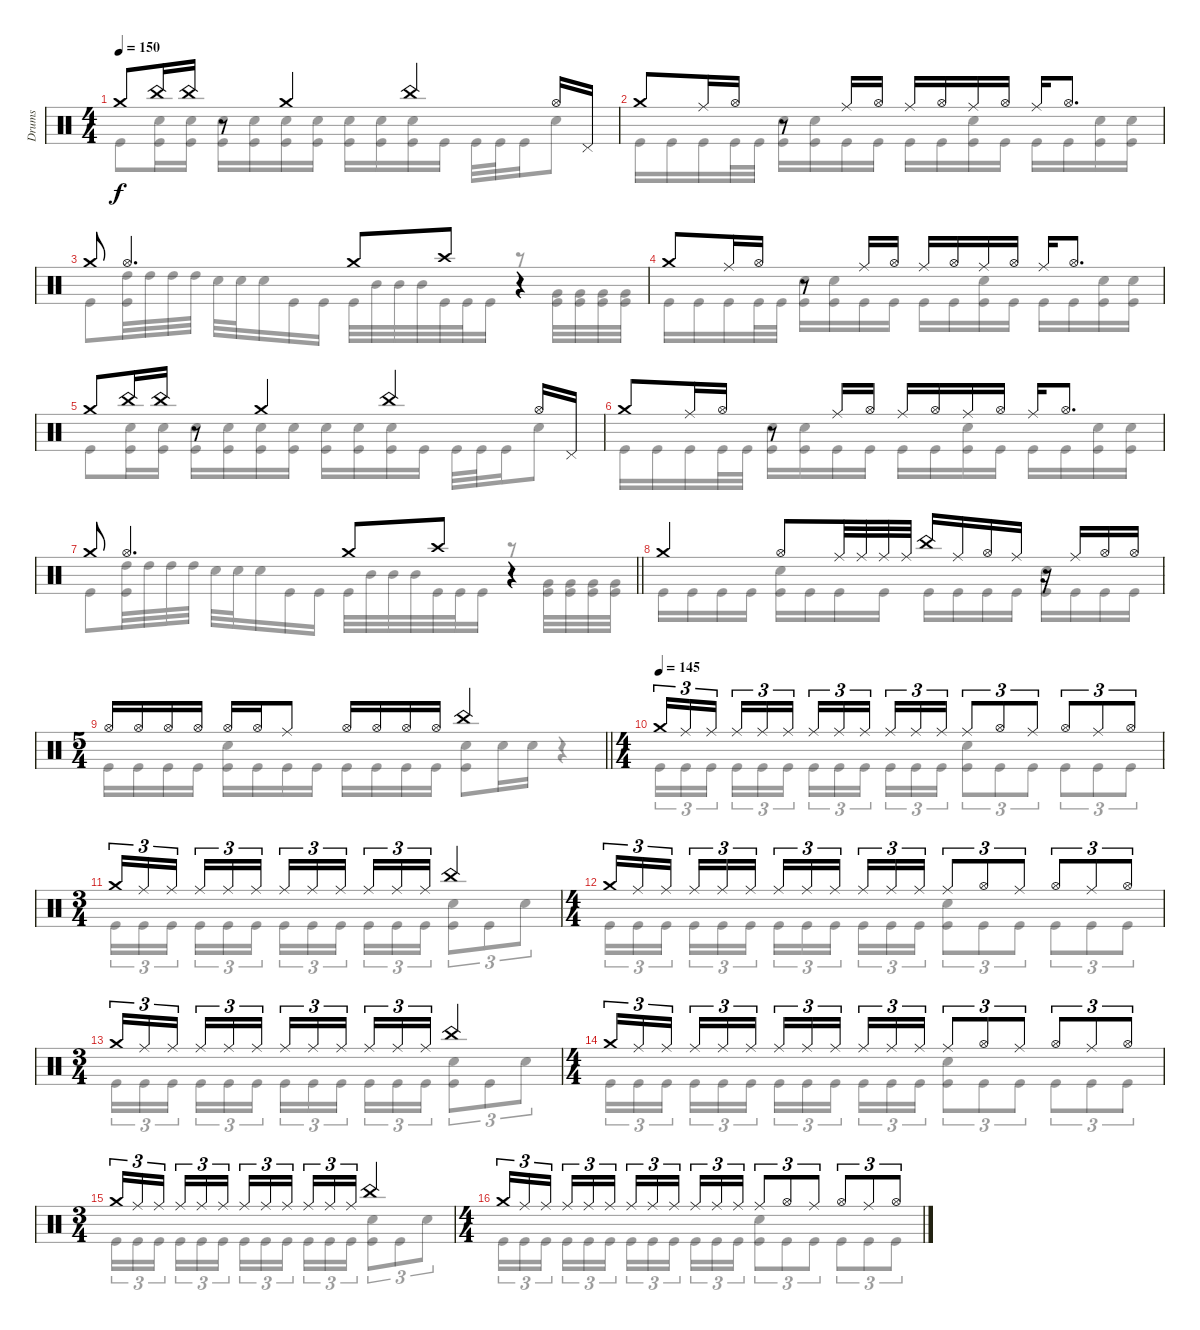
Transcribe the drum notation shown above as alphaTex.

\track ("Drums" "Drums") {instrument percussion}
\staff {score}
\articulation defaults
\voice
\ts (4 4)
\tempo 150
\clef neutral
\ks c "Crash medium (hit)".8{dy f} "China (hit)".16 "China (hit)".16
r.8 "Crash medium (hit)".4 "China (hit)".4 "Hi-Hat (open)".16 "Pedal Hi-Hat (hit)".16 |
"Crash medium (hit)".8 "Ride (middle)".16 "Hi-Hat (open)".16 r.8 "Ride (middle)".16 "Hi-Hat (open)".16 "Ride (middle)".16 "Hi-Hat (open)".16 "Ride (middle)".16 "Hi-Hat (open)".16 "Ride (middle)".16 "Hi-Hat (open)".8{d} |
"Crash medium (hit)".8 "Hi-Hat (open)".4{d} "Crash medium (hit)".8 "Crash high (hit)".8 r.4 |
"Crash medium (hit)".8 "Ride (middle)".16 "Hi-Hat (open)".16 r.8 "Ride (middle)".16 "Hi-Hat (open)".16 "Ride (middle)".16 "Hi-Hat (open)".16 "Ride (middle)".16 "Hi-Hat (open)".16 "Ride (middle)".16 "Hi-Hat (open)".8{d} |
"Crash medium (hit)".8 "China (hit)".16 "China (hit)".16 r.8 "Crash medium (hit)".4 "China (hit)".4 "Hi-Hat (open)".16 "Pedal Hi-Hat (hit)".16 |
"Crash medium (hit)".8 "Ride (middle)".16 "Hi-Hat (open)".16 r.8 "Ride (middle)".16 "Hi-Hat (open)".16 "Ride (middle)".16 "Hi-Hat (open)".16 "Ride (middle)".16 "Hi-Hat (open)".16 "Ride (middle)".16 "Hi-Hat (open)".8{d} |
\barLineRight lightlight "Crash medium (hit)".8 "Hi-Hat (open)".4{d} "Crash medium (hit)".8 "Crash high (hit)".8
r.4 |
\section ("" "")
"Crash medium (hit)".4 "Hi-Hat (open)".8 "Ride (middle)".32 "Ride (middle)".32 "Ride (middle)".32 "Ride (middle)".32 "China (hit)".16 "Ride (middle)".16 "Hi-Hat (open)".16 "Ride (middle)".16 r.16 "Ride (middle)".16 "Hi-Hat (open)".16 "Hi-Hat (open)".16 |
\ts (5 4)
\barLineRight lightlight "Hi-Hat (open)".16 "Hi-Hat (open)".16 "Hi-Hat (open)".16 "Hi-Hat (open)".16 "Hi-Hat (open)".16 "Hi-Hat (open)".16 "Ride (middle)".8 "Hi-Hat (open)".16 "Hi-Hat (open)".16 "Hi-Hat (open)".16 "Hi-Hat (open)".16 "China (hit)".2
|
\ts (4 4)
\tempo (145)
"Crash medium (hit)".16{tu (3 2)} "Ride (middle)".16{tu (3 2)} "Ride (middle)".16{tu (3 2) beam splitsecondary} "Ride (middle)".16{tu (3 2)} "Ride (middle)".16{tu (3 2)} "Ride (middle)".16{tu (3 2)} "Ride (middle)".16{tu (3 2)} "Ride (middle)".16{tu (3 2)} "Ride (middle)".16{tu (3 2) beam splitsecondary} "Ride (middle)".16{tu (3 2)} "Ride (middle)".16{tu (3 2)} "Ride (middle)".16{tu (3 2)} "Ride (middle)".8{tu (3 2)} "Hi-Hat (open)".8{tu (3 2)} "Ride (middle)".8{tu (3 2)} "Hi-Hat (open)".8{tu (3 2)} "Ride (middle)".8{tu (3 2)} "Hi-Hat (open)".8{tu (3 2)} |
\ts (3 4)
"Crash medium (hit)".16{tu (3 2)} "Ride (middle)".16{tu (3 2)} "Ride (middle)".16{tu (3 2) beam splitsecondary} "Ride (middle)".16{tu (3 2)} "Ride (middle)".16{tu (3 2)} "Ride (middle)".16{tu (3 2)} "Ride (middle)".16{tu (3 2)} "Ride (middle)".16{tu (3 2)} "Ride (middle)".16{tu (3 2) beam splitsecondary} "Ride (middle)".16{tu (3 2)} "Ride (middle)".16{tu (3 2)} "Ride (middle)".16{tu (3 2)} "China (hit)".4 |
\ts (4 4)
"Crash medium (hit)".16{tu (3 2)} "Ride (middle)".16{tu (3 2)} "Ride (middle)".16{tu (3 2) beam splitsecondary} "Ride (middle)".16{tu (3 2)} "Ride (middle)".16{tu (3 2)} "Ride (middle)".16{tu (3 2)} "Ride (middle)".16{tu (3 2)} "Ride (middle)".16{tu (3 2)} "Ride (middle)".16{tu (3 2) beam splitsecondary} "Ride (middle)".16{tu (3 2)} "Ride (middle)".16{tu (3 2)} "Ride (middle)".16{tu (3 2)} "Ride (middle)".8{tu (3 2)} "Hi-Hat (open)".8{tu (3 2)} "Ride (middle)".8{tu (3 2)} "Hi-Hat (open)".8{tu (3 2)} "Ride (middle)".8{tu (3 2)} "Hi-Hat (open)".8{tu (3 2)} |
\ts (3 4)
"Crash medium (hit)".16{tu (3 2)} "Ride (middle)".16{tu (3 2)} "Ride (middle)".16{tu (3 2) beam splitsecondary} "Ride (middle)".16{tu (3 2)} "Ride (middle)".16{tu (3 2)} "Ride (middle)".16{tu (3 2)} "Ride (middle)".16{tu (3 2)} "Ride (middle)".16{tu (3 2)} "Ride (middle)".16{tu (3 2) beam splitsecondary} "Ride (middle)".16{tu (3 2)} "Ride (middle)".16{tu (3 2)} "Ride (middle)".16{tu (3 2)} "China (hit)".4 |
\ts (4 4)
"Crash medium (hit)".16{tu (3 2)} "Ride (middle)".16{tu (3 2)} "Ride (middle)".16{tu (3 2) beam splitsecondary} "Ride (middle)".16{tu (3 2)} "Ride (middle)".16{tu (3 2)} "Ride (middle)".16{tu (3 2)} "Ride (middle)".16{tu (3 2)} "Ride (middle)".16{tu (3 2)} "Ride (middle)".16{tu (3 2) beam splitsecondary} "Ride (middle)".16{tu (3 2)} "Ride (middle)".16{tu (3 2)} "Ride (middle)".16{tu (3 2)} "Ride (middle)".8{tu (3 2)} "Hi-Hat (open)".8{tu (3 2)} "Ride (middle)".8{tu (3 2)} "Hi-Hat (open)".8{tu (3 2)} "Ride (middle)".8{tu (3 2)} "Hi-Hat (open)".8{tu (3 2)} |
\ts (3 4)
"Crash medium (hit)".16{tu (3 2)} "Ride (middle)".16{tu (3 2)} "Ride (middle)".16{tu (3 2) beam splitsecondary} "Ride (middle)".16{tu (3 2)} "Ride (middle)".16{tu (3 2)} "Ride (middle)".16{tu (3 2)} "Ride (middle)".16{tu (3 2)} "Ride (middle)".16{tu (3 2)} "Ride (middle)".16{tu (3 2) beam splitsecondary} "Ride (middle)".16{tu (3 2)} "Ride (middle)".16{tu (3 2)} "Ride (middle)".16{tu (3 2)} "China (hit)".4 |
\ts (4 4)
"Crash medium (hit)".16{tu (3 2)} "Ride (middle)".16{tu (3 2)} "Ride (middle)".16{tu (3 2) beam splitsecondary} "Ride (middle)".16{tu (3 2)} "Ride (middle)".16{tu (3 2)} "Ride (middle)".16{tu (3 2)} "Ride (middle)".16{tu (3 2)} "Ride (middle)".16{tu (3 2)} "Ride (middle)".16{tu (3 2) beam splitsecondary} "Ride (middle)".16{tu (3 2)} "Ride (middle)".16{tu (3 2)} "Ride (middle)".16{tu (3 2)} "Ride (middle)".8{tu (3 2)} "Hi-Hat (open)".8{tu (3 2)} "Ride (middle)".8{tu (3 2)} "Hi-Hat (open)".8{tu (3 2)} "Ride (middle)".8{tu (3 2)} "Hi-Hat (open)".8{tu (3 2)}
\voice
\clef neutral
\ottava regular
\simile none
\ks c "Kick (hit)".8{dy f}
("Snare (hit) 2" "Kick (hit)").16 ("Snare (hit) 2" "Kick (hit)").16 ("Snare (hit) 2" "Kick (hit)").16 ("Snare (hit) 2" "Kick (hit)").16 ("Snare (hit) 2" "Kick (hit)").16 ("Snare (hit) 2" "Kick (hit)").16 ("Snare (hit) 2" "Kick (hit)").16 ("Snare (hit) 2" "Kick (hit)").16 ("Snare (hit) 2" "Kick (hit)").16 "Kick (hit)".16 "Kick (hit)".32 "Kick (hit)".32 "Kick (hit)".16 "Snare (hit) 2".8 |
"Kick (hit)".16 "Kick (hit)".16 "Kick (hit)".16 "Kick (hit)".32 "Kick (hit)".32 ("Snare (hit) 2" "Kick (hit)").16 ("Snare (hit) 2" "Kick (hit)").16 "Kick (hit)".16 "Kick (hit)".16 "Kick (hit)".16 "Kick (hit)".16 ("Snare (hit) 2" "Kick (hit)").16 "Kick (hit)".16 "Kick (hit)".16 "Kick (hit)".16 ("Snare (hit) 2" "Kick (hit)").16 ("Snare (hit) 2" "Kick (hit)").16 |
"Kick (hit)".8 ("High Tom (hit)" "Kick (hit)").32 "High Tom (hit)".32 "High Tom (hit)".32 "High Tom (hit)".32 "Snare (hit) 2".32 "Snare (hit) 2".32 "Snare (hit) 2".16 "Kick (hit)".16 "Kick (hit)".16 "Kick (hit)".32 "Mid Tom (hit)".32 "Mid Tom (hit)".32 "Mid Tom (hit)".32 "Kick (hit)".32 "Kick (hit)".32 "Kick (hit)".16 r.8 ("Very Low Tom (hit)" "Kick (hit)").32 ("Very Low Tom (hit)" "Kick (hit)").32 ("Very Low Tom (hit)" "Kick (hit)").32 ("Very Low Tom (hit)" "Kick (hit)").32 |
"Kick (hit)".16 "Kick (hit)".16 "Kick (hit)".16 "Kick (hit)".32 "Kick (hit)".32 ("Snare (hit) 2" "Kick (hit)").16 ("Snare (hit) 2" "Kick (hit)").16 "Kick (hit)".16 "Kick (hit)".16 "Kick (hit)".16 "Kick (hit)".16 ("Snare (hit) 2" "Kick (hit)").16 "Kick (hit)".16 "Kick (hit)".16 "Kick (hit)".16 ("Snare (hit) 2" "Kick (hit)").16 ("Snare (hit) 2" "Kick (hit)").16 |
"Kick (hit)".8 ("Snare (hit) 2" "Kick (hit)").16 ("Snare (hit) 2" "Kick (hit)").16 ("Snare (hit) 2" "Kick (hit)").16 ("Snare (hit) 2" "Kick (hit)").16 ("Snare (hit) 2" "Kick (hit)").16 ("Snare (hit) 2" "Kick (hit)").16 ("Snare (hit) 2" "Kick (hit)").16 ("Snare (hit) 2" "Kick (hit)").16 ("Snare (hit) 2" "Kick (hit)").16 "Kick (hit)".16 "Kick (hit)".32 "Kick (hit)".32 "Kick (hit)".16 "Snare (hit) 2".8 |
"Kick (hit)".16 "Kick (hit)".16 "Kick (hit)".16 "Kick (hit)".32 "Kick (hit)".32 ("Snare (hit) 2" "Kick (hit)").16 ("Snare (hit) 2" "Kick (hit)").16 "Kick (hit)".16 "Kick (hit)".16 "Kick (hit)".16 "Kick (hit)".16 ("Snare (hit) 2" "Kick (hit)").16 "Kick (hit)".16 "Kick (hit)".16 "Kick (hit)".16 ("Snare (hit) 2" "Kick (hit)").16 ("Snare (hit) 2" "Kick (hit)").16 |
\barLineRight lightlight "Kick (hit)".8
("High Tom (hit)" "Kick (hit)").32 "High Tom (hit)".32 "High Tom (hit)".32 "High Tom (hit)".32 "Snare (hit) 2".32 "Snare (hit) 2".32 "Snare (hit) 2".16 "Kick (hit)".16 "Kick (hit)".16 "Kick (hit)".32 "Mid Tom (hit)".32 "Mid Tom (hit)".32 "Mid Tom (hit)".32 "Kick (hit)".32 "Kick (hit)".32 "Kick (hit)".16 r.8 ("Very Low Tom (hit)" "Kick (hit)").32 ("Very Low Tom (hit)" "Kick (hit)").32 ("Very Low Tom (hit)" "Kick (hit)").32 ("Very Low Tom (hit)" "Kick (hit)").32 |
"Kick (hit)".16 "Kick (hit)".16 "Kick (hit)".16 "Kick (hit)".16 ("Snare (hit) 2" "Kick (hit)").16 "Kick (hit)".16 "Kick (hit)".16 "Kick (hit)".16 "Kick (hit)".16 "Kick (hit)".16 "Kick (hit)".16 "Kick (hit)".16 ("Snare (hit) 2" "Kick (hit)").16 "Kick (hit)".16 "Kick (hit)".16 "Kick (hit)".16 |
\barLineRight lightlight "Kick (hit)".16 "Kick (hit)".16 "Kick (hit)".16 "Kick (hit)".16
("Snare (hit) 2" "Kick (hit)").16 "Kick (hit)".16 "Kick (hit)".16 "Kick (hit)".16 "Kick (hit)".16 "Kick (hit)".16 "Kick (hit)".16 "Kick (hit)".16 ("Snare (hit) 2" "Kick (hit)").8 "Snare (hit) 2".16 "Snare (hit) 2".16 r.4 |
"Kick (hit)".16{tu (3 2)} "Kick (hit)".16{tu (3 2)} "Kick (hit)".16{tu (3 2) beam splitsecondary} "Kick (hit)".16{tu (3 2)} "Kick (hit)".16{tu (3 2)} "Kick (hit)".16{tu (3 2)} "Kick (hit)".16{tu (3 2)} "Kick (hit)".16{tu (3 2)} "Kick (hit)".16{tu (3 2) beam splitsecondary} "Kick (hit)".16{tu (3 2)} "Kick (hit)".16{tu (3 2)} "Kick (hit)".16{tu (3 2)} ("Snare (hit) 2" "Kick (hit)").8{tu (3 2)} "Kick (hit)".8{tu (3 2)} "Kick (hit)".8{tu (3 2)} "Kick (hit)".8{tu (3 2)} "Kick (hit)".8{tu (3 2)} "Kick (hit)".8{tu (3 2)} |
"Kick (hit)".16{tu (3 2)} "Kick (hit)".16{tu (3 2)} "Kick (hit)".16{tu (3 2) beam splitsecondary} "Kick (hit)".16{tu (3 2)} "Kick (hit)".16{tu (3 2)} "Kick (hit)".16{tu (3 2)} "Kick (hit)".16{tu (3 2)} "Kick (hit)".16{tu (3 2)} "Kick (hit)".16{tu (3 2) beam splitsecondary} "Kick (hit)".16{tu (3 2)} "Kick (hit)".16{tu (3 2)} "Kick (hit)".16{tu (3 2)} ("Snare (hit) 2" "Kick (hit)").8{tu (3 2)} "Kick (hit)".8{tu (3 2)} "Snare (hit) 2".8{tu (3 2)} |
"Kick (hit)".16{tu (3 2)} "Kick (hit)".16{tu (3 2)} "Kick (hit)".16{tu (3 2) beam splitsecondary} "Kick (hit)".16{tu (3 2)} "Kick (hit)".16{tu (3 2)} "Kick (hit)".16{tu (3 2)} "Kick (hit)".16{tu (3 2)} "Kick (hit)".16{tu (3 2)} "Kick (hit)".16{tu (3 2) beam splitsecondary} "Kick (hit)".16{tu (3 2)} "Kick (hit)".16{tu (3 2)} "Kick (hit)".16{tu (3 2)} ("Snare (hit) 2" "Kick (hit)").8{tu (3 2)} "Kick (hit)".8{tu (3 2)} "Kick (hit)".8{tu (3 2)} "Kick (hit)".8{tu (3 2)} "Kick (hit)".8{tu (3 2)} "Kick (hit)".8{tu (3 2)} |
"Kick (hit)".16{tu (3 2)} "Kick (hit)".16{tu (3 2)} "Kick (hit)".16{tu (3 2) beam splitsecondary} "Kick (hit)".16{tu (3 2)} "Kick (hit)".16{tu (3 2)} "Kick (hit)".16{tu (3 2)} "Kick (hit)".16{tu (3 2)} "Kick (hit)".16{tu (3 2)} "Kick (hit)".16{tu (3 2) beam splitsecondary} "Kick (hit)".16{tu (3 2)} "Kick (hit)".16{tu (3 2)} "Kick (hit)".16{tu (3 2)} ("Snare (hit) 2" "Kick (hit)").8{tu (3 2)} "Kick (hit)".8{tu (3 2)} "Snare (hit) 2".8{tu (3 2)} |
"Kick (hit)".16{tu (3 2)} "Kick (hit)".16{tu (3 2)} "Kick (hit)".16{tu (3 2) beam splitsecondary} "Kick (hit)".16{tu (3 2)} "Kick (hit)".16{tu (3 2)} "Kick (hit)".16{tu (3 2)} "Kick (hit)".16{tu (3 2)} "Kick (hit)".16{tu (3 2)} "Kick (hit)".16{tu (3 2) beam splitsecondary} "Kick (hit)".16{tu (3 2)} "Kick (hit)".16{tu (3 2)} "Kick (hit)".16{tu (3 2)} ("Snare (hit) 2" "Kick (hit)").8{tu (3 2)} "Kick (hit)".8{tu (3 2)} "Kick (hit)".8{tu (3 2)} "Kick (hit)".8{tu (3 2)} "Kick (hit)".8{tu (3 2)} "Kick (hit)".8{tu (3 2)} |
"Kick (hit)".16{tu (3 2)} "Kick (hit)".16{tu (3 2)} "Kick (hit)".16{tu (3 2) beam splitsecondary} "Kick (hit)".16{tu (3 2)} "Kick (hit)".16{tu (3 2)} "Kick (hit)".16{tu (3 2)} "Kick (hit)".16{tu (3 2)} "Kick (hit)".16{tu (3 2)} "Kick (hit)".16{tu (3 2) beam splitsecondary} "Kick (hit)".16{tu (3 2)} "Kick (hit)".16{tu (3 2)} "Kick (hit)".16{tu (3 2)} ("Snare (hit) 2" "Kick (hit)").8{tu (3 2)} "Kick (hit)".8{tu (3 2)} "Snare (hit) 2".8{tu (3 2)} |
"Kick (hit)".16{tu (3 2)} "Kick (hit)".16{tu (3 2)} "Kick (hit)".16{tu (3 2) beam splitsecondary} "Kick (hit)".16{tu (3 2)} "Kick (hit)".16{tu (3 2)} "Kick (hit)".16{tu (3 2)} "Kick (hit)".16{tu (3 2)} "Kick (hit)".16{tu (3 2)} "Kick (hit)".16{tu (3 2) beam splitsecondary} "Kick (hit)".16{tu (3 2)} "Kick (hit)".16{tu (3 2)} "Kick (hit)".16{tu (3 2)} ("Snare (hit) 2" "Kick (hit)").8{tu (3 2)} "Kick (hit)".8{tu (3 2)} "Kick (hit)".8{tu (3 2)} "Kick (hit)".8{tu (3 2)} "Kick (hit)".8{tu (3 2)} "Kick (hit)".8{tu (3 2)}
